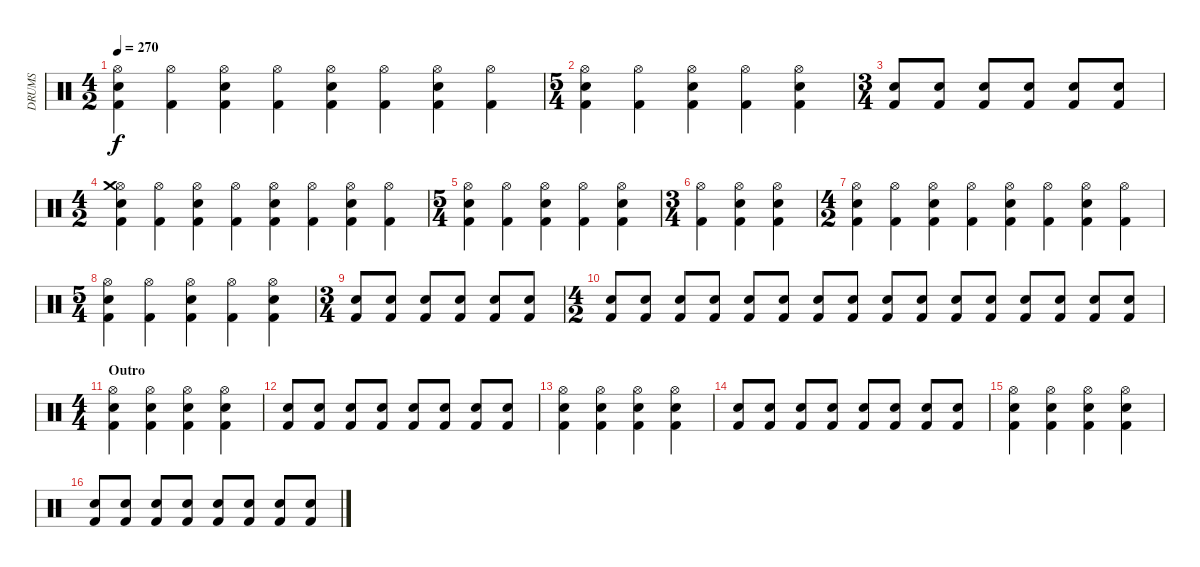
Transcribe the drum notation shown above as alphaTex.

\track ("DRUMS" "DRUMS") {instrument percussion}
\staff {score}
\articulation defaults
\ts (4 2)
\tempo 270
\clef neutral
\ks c
("Hi-Hat (open)" "Snare (hit) 2" "Kick (hit) 2").4{dy f} ("Hi-Hat (open)" "Kick (hit) 2").4 ("Hi-Hat (open)" "Snare (hit) 2" "Kick (hit) 2").4 ("Hi-Hat (open)" "Kick (hit) 2").4 ("Hi-Hat (open)" "Snare (hit) 2" "Kick (hit) 2").4 ("Hi-Hat (open)" "Kick (hit) 2").4 ("Hi-Hat (open)" "Snare (hit) 2" "Kick (hit) 2").4 ("Hi-Hat (open)" "Kick (hit) 2").4 |
\ts (5 4)
("Hi-Hat (open)" "Snare (hit) 2" "Kick (hit) 2").4 ("Hi-Hat (open)" "Kick (hit) 2").4 ("Hi-Hat (open)" "Snare (hit) 2" "Kick (hit) 2").4 ("Hi-Hat (open)" "Kick (hit) 2").4 ("Hi-Hat (open)" "Snare (hit) 2" "Kick (hit) 2").4 |
\ts (3 4)
("Snare (hit) 2" "Kick (hit) 2").8 ("Snare (hit) 2" "Kick (hit) 2").8 ("Snare (hit) 2" "Kick (hit) 2").8 ("Snare (hit) 2" "Kick (hit) 2").8 ("Snare (hit) 2" "Kick (hit) 2").8 ("Snare (hit) 2" "Kick (hit) 2").8 |
\ts (4 2)
("Hi-Hat (open)" "Snare (hit) 2" "Crash medium (hit)" "Kick (hit) 2").4 ("Hi-Hat (open)" "Kick (hit) 2").4 ("Hi-Hat (open)" "Snare (hit) 2" "Kick (hit) 2").4 ("Hi-Hat (open)" "Kick (hit) 2").4 ("Hi-Hat (open)" "Snare (hit) 2" "Kick (hit) 2").4 ("Hi-Hat (open)" "Kick (hit) 2").4 ("Hi-Hat (open)" "Snare (hit) 2" "Kick (hit) 2").4 ("Hi-Hat (open)" "Kick (hit) 2").4 |
\ts (5 4)
("Hi-Hat (open)" "Snare (hit) 2" "Kick (hit) 2").4 ("Hi-Hat (open)" "Kick (hit) 2").4 ("Hi-Hat (open)" "Snare (hit) 2" "Kick (hit) 2").4 ("Hi-Hat (open)" "Kick (hit) 2").4 ("Hi-Hat (open)" "Snare (hit) 2" "Kick (hit) 2").4 |
\ts (3 4)
("Hi-Hat (open)" "Kick (hit) 2").4 ("Hi-Hat (open)" "Snare (hit) 2" "Kick (hit) 2").4 ("Hi-Hat (open)" "Snare (hit) 2" "Kick (hit) 2").4 |
\ts (4 2)
("Hi-Hat (open)" "Snare (hit) 2" "Kick (hit) 2").4 ("Hi-Hat (open)" "Kick (hit) 2").4 ("Hi-Hat (open)" "Snare (hit) 2" "Kick (hit) 2").4 ("Hi-Hat (open)" "Kick (hit) 2").4 ("Hi-Hat (open)" "Snare (hit) 2" "Kick (hit) 2").4 ("Hi-Hat (open)" "Kick (hit) 2").4 ("Hi-Hat (open)" "Snare (hit) 2" "Kick (hit) 2").4 ("Hi-Hat (open)" "Kick (hit) 2").4 |
\ts (5 4)
("Hi-Hat (open)" "Snare (hit) 2" "Kick (hit) 2").4 ("Hi-Hat (open)" "Kick (hit) 2").4 ("Hi-Hat (open)" "Snare (hit) 2" "Kick (hit) 2").4 ("Hi-Hat (open)" "Kick (hit) 2").4 ("Hi-Hat (open)" "Snare (hit) 2" "Kick (hit) 2").4 |
\ts (3 4)
("Snare (hit) 2" "Kick (hit) 2").8 ("Snare (hit) 2" "Kick (hit) 2").8 ("Snare (hit) 2" "Kick (hit) 2").8 ("Snare (hit) 2" "Kick (hit) 2").8 ("Snare (hit) 2" "Kick (hit) 2").8 ("Snare (hit) 2" "Kick (hit) 2").8 |
\ts (4 2)
("Snare (hit) 2" "Kick (hit) 2").8 ("Snare (hit) 2" "Kick (hit) 2").8 ("Snare (hit) 2" "Kick (hit) 2").8 ("Snare (hit) 2" "Kick (hit) 2").8 ("Snare (hit) 2" "Kick (hit) 2").8 ("Snare (hit) 2" "Kick (hit) 2").8 ("Snare (hit) 2" "Kick (hit) 2").8 ("Snare (hit) 2" "Kick (hit) 2").8 ("Snare (hit) 2" "Kick (hit) 2").8 ("Snare (hit) 2" "Kick (hit) 2").8 ("Snare (hit) 2" "Kick (hit) 2").8 ("Snare (hit) 2" "Kick (hit) 2").8 ("Snare (hit) 2" "Kick (hit) 2").8 ("Snare (hit) 2" "Kick (hit) 2").8 ("Snare (hit) 2" "Kick (hit) 2").8 ("Snare (hit) 2" "Kick (hit) 2").8 |
\ts (4 4)
\section ("" "Outro")
("Hi-Hat (open)" "Snare (hit) 2" "Kick (hit) 2").4 ("Hi-Hat (open)" "Snare (hit) 2" "Kick (hit) 2").4 ("Hi-Hat (open)" "Snare (hit) 2" "Kick (hit) 2").4 ("Hi-Hat (open)" "Snare (hit) 2" "Kick (hit) 2").4 |
("Snare (hit) 2" "Kick (hit) 2").8 ("Snare (hit) 2" "Kick (hit) 2").8 ("Snare (hit) 2" "Kick (hit) 2").8 ("Snare (hit) 2" "Kick (hit) 2").8 ("Snare (hit) 2" "Kick (hit) 2").8 ("Snare (hit) 2" "Kick (hit) 2").8 ("Snare (hit) 2" "Kick (hit) 2").8 ("Snare (hit) 2" "Kick (hit) 2").8 |
("Hi-Hat (open)" "Snare (hit) 2" "Kick (hit) 2").4 ("Hi-Hat (open)" "Snare (hit) 2" "Kick (hit) 2").4 ("Hi-Hat (open)" "Snare (hit) 2" "Kick (hit) 2").4 ("Hi-Hat (open)" "Snare (hit) 2" "Kick (hit) 2").4 |
("Snare (hit) 2" "Kick (hit) 2").8 ("Snare (hit) 2" "Kick (hit) 2").8 ("Snare (hit) 2" "Kick (hit) 2").8 ("Snare (hit) 2" "Kick (hit) 2").8 ("Snare (hit) 2" "Kick (hit) 2").8 ("Snare (hit) 2" "Kick (hit) 2").8 ("Snare (hit) 2" "Kick (hit) 2").8 ("Snare (hit) 2" "Kick (hit) 2").8 |
("Hi-Hat (open)" "Snare (hit) 2" "Kick (hit) 2").4 ("Hi-Hat (open)" "Snare (hit) 2" "Kick (hit) 2").4 ("Hi-Hat (open)" "Snare (hit) 2" "Kick (hit) 2").4 ("Hi-Hat (open)" "Snare (hit) 2" "Kick (hit) 2").4 |
("Snare (hit) 2" "Kick (hit) 2").8 ("Snare (hit) 2" "Kick (hit) 2").8 ("Snare (hit) 2" "Kick (hit) 2").8 ("Snare (hit) 2" "Kick (hit) 2").8 ("Snare (hit) 2" "Kick (hit) 2").8 ("Snare (hit) 2" "Kick (hit) 2").8 ("Snare (hit) 2" "Kick (hit) 2").8 ("Snare (hit) 2" "Kick (hit) 2").8
